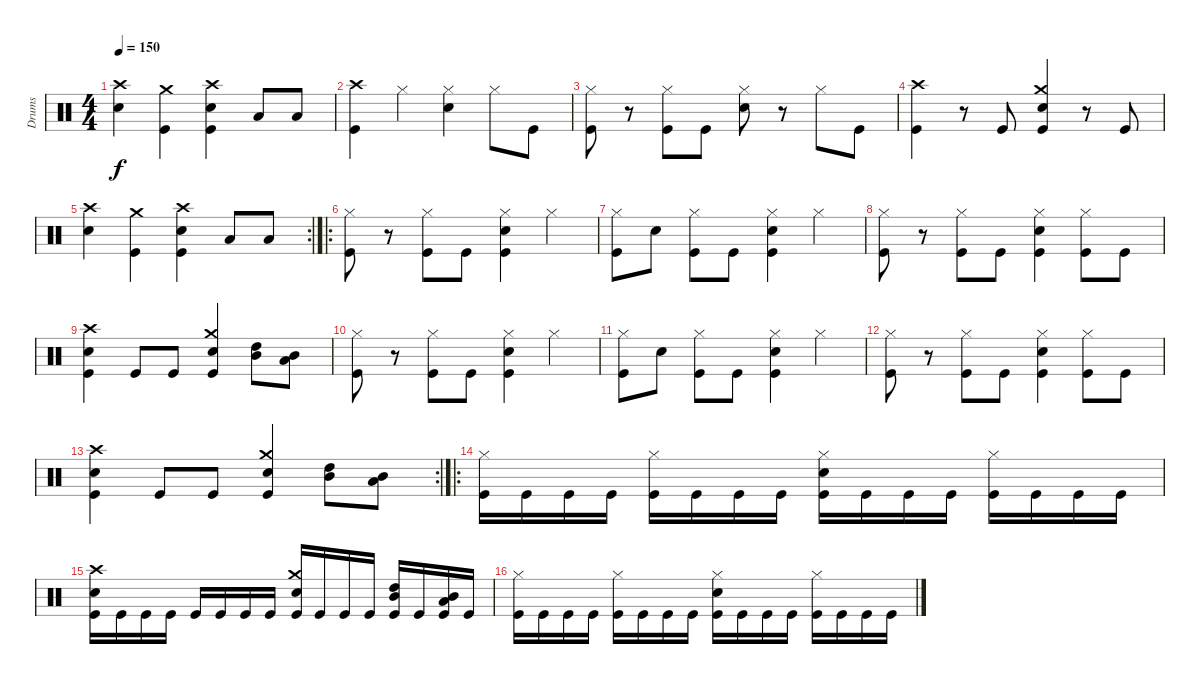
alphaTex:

\track ("Drums" "Drums") {instrument percussion}
\staff {score}
\articulation defaults
\ts (4 4)
\tempo 150
\clef neutral
\ks c
("Crash high (hit)" "Snare (hit) 2").4{dy f} ("Crash medium (hit)" "Kick (hit)").4 ("Crash high (hit)" "Snare (hit) 2" "Kick (hit)").4 "Low Tom (hit)".8 "Low Tom (hit)".8 |
("Crash high (hit)" "Kick (hit)").4 "Hi-Hat (closed)".4 ("Hi-Hat (closed)" "Snare (hit) 2").4 "Hi-Hat (closed)".8 "Kick (hit)".8 |
("Hi-Hat (closed)" "Kick (hit)").8 r.8 ("Hi-Hat (closed)" "Kick (hit)").8 "Kick (hit)".8 ("Hi-Hat (closed)" "Snare (hit) 2").8 r.8 "Hi-Hat (closed)".8 "Kick (hit)".8 |
("Crash high (hit)" "Kick (hit)").4 r.8 "Kick (hit)".8 ("Crash medium (hit)" "Snare (hit) 2" "Kick (hit)").4 r.8 "Kick (hit)".8 |
\rc 2
("Crash high (hit)" "Snare (hit) 2").4 ("Crash medium (hit)" "Kick (hit)").4 ("Crash high (hit)" "Snare (hit) 2" "Kick (hit)").4 "Low Tom (hit)".8 "Low Tom (hit)".8 |
\ro
("Hi-Hat (closed)" "Kick (hit)").8 r.8 ("Hi-Hat (closed)" "Kick (hit)").8 "Kick (hit)".8 ("Hi-Hat (closed)" "Snare (hit) 2" "Kick (hit)").4 "Hi-Hat (closed)".4 |
("Hi-Hat (closed)" "Kick (hit)").8 "Snare (hit) 2".8 ("Hi-Hat (closed)" "Kick (hit)").8 "Kick (hit)".8 ("Hi-Hat (closed)" "Snare (hit) 2" "Kick (hit)").4 "Hi-Hat (closed)".4 |
("Hi-Hat (closed)" "Kick (hit)").8 r.8 ("Hi-Hat (closed)" "Kick (hit)").8 "Kick (hit)".8 ("Hi-Hat (closed)" "Snare (hit) 2" "Kick (hit)").4 ("Hi-Hat (closed)" "Kick (hit)").8 "Kick (hit)".8 |
("Crash high (hit)" "Snare (hit) 2" "Kick (hit)").4 "Kick (hit)".8 "Kick (hit)".8 ("Crash medium (hit)" "Snare (hit) 2" "Kick (hit)").4 ("Mid Tom (hit)" "High Tom (hit)").8 ("Low Tom (hit)" "Mid Tom (hit)").8 |
("Hi-Hat (closed)" "Kick (hit)").8 r.8 ("Hi-Hat (closed)" "Kick (hit)").8 "Kick (hit)".8 ("Hi-Hat (closed)" "Snare (hit) 2" "Kick (hit)").4 "Hi-Hat (closed)".4 |
("Hi-Hat (closed)" "Kick (hit)").8 "Snare (hit) 2".8 ("Hi-Hat (closed)" "Kick (hit)").8 "Kick (hit)".8 ("Hi-Hat (closed)" "Snare (hit) 2" "Kick (hit)").4 "Hi-Hat (closed)".4 |
("Hi-Hat (closed)" "Kick (hit)").8 r.8 ("Hi-Hat (closed)" "Kick (hit)").8 "Kick (hit)".8 ("Hi-Hat (closed)" "Snare (hit) 2" "Kick (hit)").4 ("Hi-Hat (closed)" "Kick (hit)").8 "Kick (hit)".8 |
\rc 2
("Crash high (hit)" "Snare (hit) 2" "Kick (hit)").4 "Kick (hit)".8 "Kick (hit)".8 ("Crash medium (hit)" "Snare (hit) 2" "Kick (hit)").4 ("Mid Tom (hit)" "High Tom (hit)").8 ("Low Tom (hit)" "Mid Tom (hit)").8 |
\ro
("Hi-Hat (closed)" "Kick (hit)").16 "Kick (hit)".16 "Kick (hit)".16 "Kick (hit)".16 ("Hi-Hat (closed)" "Kick (hit)").16 "Kick (hit)".16 "Kick (hit)".16 "Kick (hit)".16 ("Hi-Hat (closed)" "Snare (hit) 2" "Kick (hit)").16 "Kick (hit)".16 "Kick (hit)".16 "Kick (hit)".16 ("Hi-Hat (closed)" "Kick (hit)").16 "Kick (hit)".16 "Kick (hit)".16 "Kick (hit)".16 |
("Crash high (hit)" "Snare (hit) 2" "Kick (hit)").16 "Kick (hit)".16 "Kick (hit)".16 "Kick (hit)".16 "Kick (hit)".16 "Kick (hit)".16 "Kick (hit)".16 "Kick (hit)".16 ("Crash medium (hit)" "Snare (hit) 2" "Kick (hit)").16 "Kick (hit)".16 "Kick (hit)".16 "Kick (hit)".16 ("Mid Tom (hit)" "High Tom (hit)" "Kick (hit)").16 "Kick (hit)".16 ("Low Tom (hit)" "Mid Tom (hit)" "Kick (hit)").16 "Kick (hit)".16 |
("Hi-Hat (closed)" "Kick (hit)").16 "Kick (hit)".16 "Kick (hit)".16 "Kick (hit)".16 ("Hi-Hat (closed)" "Kick (hit)").16 "Kick (hit)".16 "Kick (hit)".16 "Kick (hit)".16 ("Hi-Hat (closed)" "Snare (hit) 2" "Kick (hit)").16 "Kick (hit)".16 "Kick (hit)".16 "Kick (hit)".16 ("Hi-Hat (closed)" "Kick (hit)").16 "Kick (hit)".16 "Kick (hit)".16 "Kick (hit)".16
